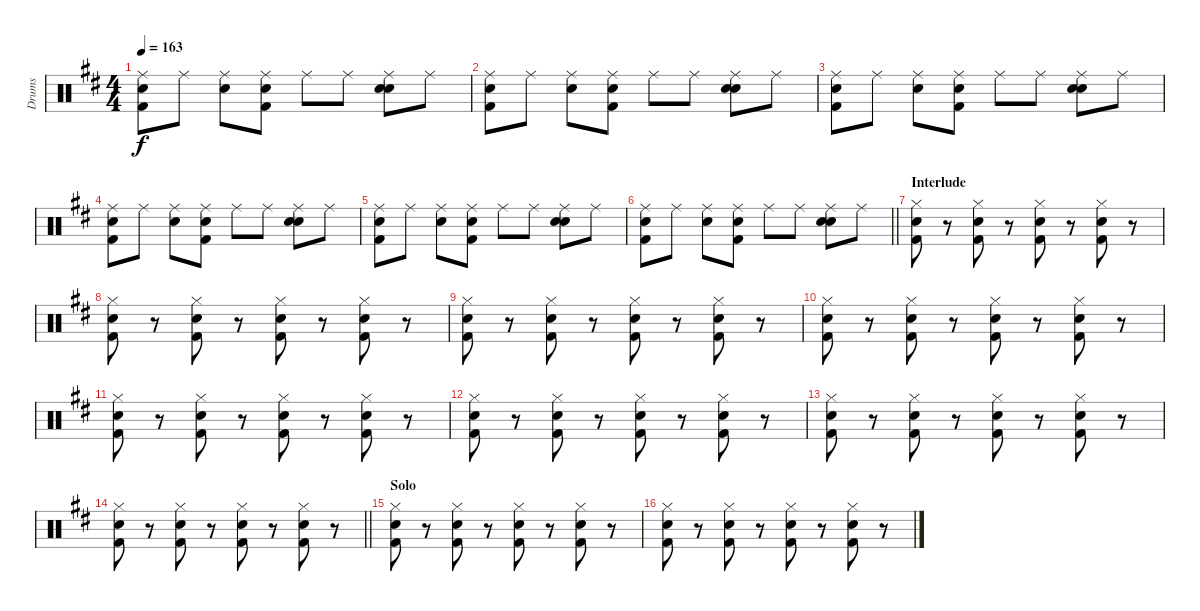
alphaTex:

\track ("Drums" "Drums") {instrument percussion}
\staff {score}
\articulation defaults
\ts (4 4)
\tempo 163
\clef neutral
\ks d
("Ride (middle)" "Snare (hit) 2" "Kick (hit) 2").8{dy f} "Ride (middle)".8 ("Ride (middle)" "Hand Clap (hit)").8 ("Ride (middle)" "Snare (hit) 2" "Kick (hit) 2").8 "Ride (middle)".8 "Ride (middle)".8 ("Ride (middle)" "Hand Clap (hit)" "Snare (hit) 2").8 "Ride (middle)".8 |
("Ride (middle)" "Snare (hit) 2" "Kick (hit) 2").8 "Ride (middle)".8 ("Ride (middle)" "Hand Clap (hit)").8 ("Ride (middle)" "Snare (hit) 2" "Kick (hit) 2").8 "Ride (middle)".8 "Ride (middle)".8 ("Ride (middle)" "Hand Clap (hit)" "Snare (hit) 2").8 "Ride (middle)".8 |
("Ride (middle)" "Snare (hit) 2" "Kick (hit) 2").8 "Ride (middle)".8 ("Ride (middle)" "Hand Clap (hit)").8 ("Ride (middle)" "Snare (hit) 2" "Kick (hit) 2").8 "Ride (middle)".8 "Ride (middle)".8 ("Ride (middle)" "Hand Clap (hit)" "Snare (hit) 2").8 "Ride (middle)".8 |
("Ride (middle)" "Snare (hit) 2" "Kick (hit) 2").8 "Ride (middle)".8 ("Ride (middle)" "Hand Clap (hit)").8 ("Ride (middle)" "Snare (hit) 2" "Kick (hit) 2").8 "Ride (middle)".8 "Ride (middle)".8 ("Ride (middle)" "Hand Clap (hit)" "Snare (hit) 2").8 "Ride (middle)".8 |
("Ride (middle)" "Snare (hit) 2" "Kick (hit) 2").8 "Ride (middle)".8 ("Ride (middle)" "Hand Clap (hit)").8 ("Ride (middle)" "Snare (hit) 2" "Kick (hit) 2").8 "Ride (middle)".8 "Ride (middle)".8 ("Ride (middle)" "Hand Clap (hit)" "Snare (hit) 2").8 "Ride (middle)".8 |
\barLineRight lightlight
("Ride (middle)" "Snare (hit) 2" "Kick (hit) 2").8 "Ride (middle)".8 ("Ride (middle)" "Hand Clap (hit)").8 ("Ride (middle)" "Snare (hit) 2" "Kick (hit) 2").8 "Ride (middle)".8 "Ride (middle)".8 ("Ride (middle)" "Hand Clap (hit)" "Snare (hit) 2").8 "Ride (middle)".8 |
\section ("" "Interlude")
("Hi-Hat (closed)" "Snare (hit) 2" "Kick (hit) 2").8 r.8 ("Hi-Hat (closed)" "Snare (hit) 2" "Kick (hit) 2").8 r.8 ("Hi-Hat (closed)" "Snare (hit) 2" "Kick (hit) 2").8 r.8 ("Hi-Hat (closed)" "Snare (hit) 2" "Kick (hit) 2").8 r.8 |
("Hi-Hat (closed)" "Snare (hit) 2" "Kick (hit) 2").8 r.8 ("Hi-Hat (closed)" "Snare (hit) 2" "Kick (hit) 2").8 r.8 ("Hi-Hat (closed)" "Snare (hit) 2" "Kick (hit) 2").8 r.8 ("Hi-Hat (closed)" "Snare (hit) 2" "Kick (hit) 2").8 r.8 |
("Hi-Hat (closed)" "Snare (hit) 2" "Kick (hit) 2").8 r.8 ("Hi-Hat (closed)" "Snare (hit) 2" "Kick (hit) 2").8 r.8 ("Hi-Hat (closed)" "Snare (hit) 2" "Kick (hit) 2").8 r.8 ("Hi-Hat (closed)" "Snare (hit) 2" "Kick (hit) 2").8 r.8 |
("Hi-Hat (closed)" "Snare (hit) 2" "Kick (hit) 2").8 r.8 ("Hi-Hat (closed)" "Snare (hit) 2" "Kick (hit) 2").8 r.8 ("Hi-Hat (closed)" "Snare (hit) 2" "Kick (hit) 2").8 r.8 ("Hi-Hat (closed)" "Snare (hit) 2" "Kick (hit) 2").8 r.8 |
("Hi-Hat (closed)" "Snare (hit) 2" "Kick (hit) 2").8 r.8 ("Hi-Hat (closed)" "Snare (hit) 2" "Kick (hit) 2").8 r.8 ("Hi-Hat (closed)" "Snare (hit) 2" "Kick (hit) 2").8 r.8 ("Hi-Hat (closed)" "Snare (hit) 2" "Kick (hit) 2").8 r.8 |
("Hi-Hat (closed)" "Snare (hit) 2" "Kick (hit) 2").8 r.8 ("Hi-Hat (closed)" "Snare (hit) 2" "Kick (hit) 2").8 r.8 ("Hi-Hat (closed)" "Snare (hit) 2" "Kick (hit) 2").8 r.8 ("Hi-Hat (closed)" "Snare (hit) 2" "Kick (hit) 2").8 r.8 |
("Hi-Hat (closed)" "Snare (hit) 2" "Kick (hit) 2").8 r.8 ("Hi-Hat (closed)" "Snare (hit) 2" "Kick (hit) 2").8 r.8 ("Hi-Hat (closed)" "Snare (hit) 2" "Kick (hit) 2").8 r.8 ("Hi-Hat (closed)" "Snare (hit) 2" "Kick (hit) 2").8 r.8 |
\barLineRight lightlight
("Hi-Hat (closed)" "Snare (hit) 2" "Kick (hit) 2").8 r.8 ("Hi-Hat (closed)" "Snare (hit) 2" "Kick (hit) 2").8 r.8 ("Hi-Hat (closed)" "Snare (hit) 2" "Kick (hit) 2").8 r.8 ("Hi-Hat (closed)" "Snare (hit) 2" "Kick (hit) 2").8 r.8 |
\section ("" "Solo")
("Hi-Hat (closed)" "Snare (hit) 2" "Kick (hit) 2").8 r.8 ("Hi-Hat (closed)" "Snare (hit) 2" "Kick (hit) 2").8 r.8 ("Hi-Hat (closed)" "Snare (hit) 2" "Kick (hit) 2").8 r.8 ("Hi-Hat (closed)" "Snare (hit) 2" "Kick (hit) 2").8 r.8 |
("Hi-Hat (closed)" "Snare (hit) 2" "Kick (hit) 2").8 r.8 ("Hi-Hat (closed)" "Snare (hit) 2" "Kick (hit) 2").8 r.8 ("Hi-Hat (closed)" "Snare (hit) 2" "Kick (hit) 2").8 r.8 ("Hi-Hat (closed)" "Snare (hit) 2" "Kick (hit) 2").8 r.8
